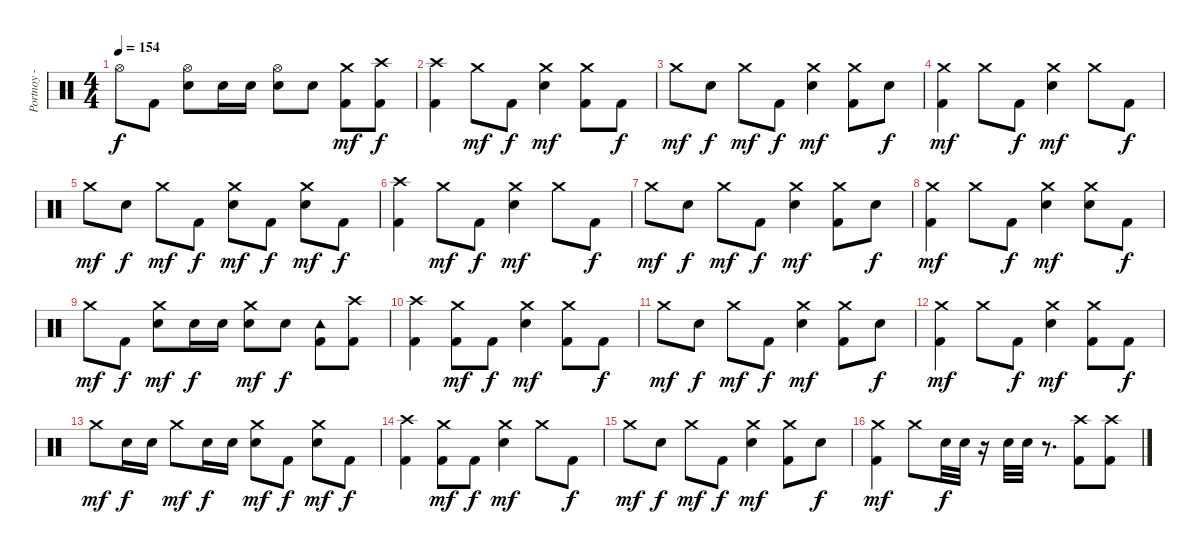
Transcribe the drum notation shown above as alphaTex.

\track ("Portnoy - Drums" "Portnoy - ") {instrument percussion}
\staff {score}
\articulation defaults
\ts (4 4)
\tempo 154
\clef neutral
\ks c "Hi-Hat (open)".8{dy f} "Kick (hit) 2".8
("Electric Snare (hit)" "Hi-Hat (open)").8 "Electric Snare (hit)".16 "Electric Snare (hit)".16 ("Electric Snare (hit)" "Hi-Hat (open)").8 "Electric Snare (hit)".8 ("Kick (hit) 2" "Crash medium (hit)").8{dy mf} ("Kick (hit) 2" "Crash high (hit)").8{dy f} |
("Kick (hit) 2" "Crash high (hit)").4 "Crash medium (hit)".8{dy mf} "Kick (hit) 2".8{dy f} ("Electric Snare (hit)" "Crash medium (hit)").4{dy mf} ("Kick (hit) 2" "Crash medium (hit)").8 "Kick (hit) 2".8{dy f} |
"Crash medium (hit)".8{dy mf} "Electric Snare (hit)".8{dy f} "Crash medium (hit)".8{dy mf} "Kick (hit) 2".8{dy f} ("Electric Snare (hit)" "Crash medium (hit)").4{dy mf} ("Kick (hit) 2" "Crash medium (hit)").8 "Electric Snare (hit)".8{dy f} |
("Kick (hit) 2" "Crash medium (hit)").4{dy mf} "Crash medium (hit)".8 "Kick (hit) 2".8{dy f} ("Electric Snare (hit)" "Crash medium (hit)").4{dy mf} "Crash medium (hit)".8 "Kick (hit) 2".8{dy f} |
"Crash medium (hit)".8{dy mf} "Electric Snare (hit)".8{dy f} "Crash medium (hit)".8{dy mf} "Kick (hit) 2".8{dy f} ("Electric Snare (hit)" "Crash medium (hit)").8{dy mf} "Kick (hit) 2".8{dy f} ("Electric Snare (hit)" "Crash medium (hit)").8{dy mf} "Kick (hit) 2".8{dy f} |
("Kick (hit) 2" "Crash high (hit)").4 "Crash medium (hit)".8{dy mf} "Kick (hit) 2".8{dy f} ("Electric Snare (hit)" "Crash medium (hit)").4{dy mf} "Crash medium (hit)".8 "Kick (hit) 2".8{dy f} |
"Crash medium (hit)".8{dy mf} "Electric Snare (hit)".8{dy f} "Crash medium (hit)".8{dy mf} "Kick (hit) 2".8{dy f} ("Electric Snare (hit)" "Crash medium (hit)").4{dy mf} ("Kick (hit) 2" "Crash medium (hit)").8 "Electric Snare (hit)".8{dy f} |
("Kick (hit) 2" "Crash medium (hit)").4{dy mf} "Crash medium (hit)".8 "Kick (hit) 2".8{dy f} ("Electric Snare (hit)" "Crash medium (hit)").4{dy mf} ("Electric Snare (hit)" "Crash medium (hit)").8 "Kick (hit) 2".8{dy f} |
"Crash medium (hit)".8{dy mf} "Kick (hit) 2".8{dy f} ("Electric Snare (hit)" "Crash medium (hit)").8{dy mf} "Electric Snare (hit)".16{dy f} "Electric Snare (hit)".16 ("Electric Snare (hit)" "Crash medium (hit)").8{dy mf} "Electric Snare (hit)".8{dy f} ("Kick (hit) 2" "Tambourine (hit)").8 ("Kick (hit) 2" "Crash high (hit)").8 |
("Crash high (hit)" "Kick (hit) 2").4 ("Kick (hit) 2" "Crash medium (hit)").8{dy mf} "Kick (hit) 2".8{dy f} ("Electric Snare (hit)" "Crash medium (hit)").4{dy mf} ("Kick (hit) 2" "Crash medium (hit)").8 "Kick (hit) 2".8{dy f} |
"Crash medium (hit)".8{dy mf} "Electric Snare (hit)".8{dy f} "Crash medium (hit)".8{dy mf} "Kick (hit) 2".8{dy f} ("Electric Snare (hit)" "Crash medium (hit)").4{dy mf} ("Kick (hit) 2" "Crash medium (hit)").8 "Electric Snare (hit)".8{dy f} |
("Kick (hit) 2" "Crash medium (hit)").4{dy mf} "Crash medium (hit)".8 "Kick (hit) 2".8{dy f} ("Electric Snare (hit)" "Crash medium (hit)").4{dy mf} ("Kick (hit) 2" "Crash medium (hit)").8 "Kick (hit) 2".8{dy f} |
"Crash medium (hit)".8{dy mf} "Electric Snare (hit)".16{dy f} "Electric Snare (hit)".16 "Crash medium (hit)".8{dy mf} "Electric Snare (hit)".16{dy f} "Electric Snare (hit)".16 ("Electric Snare (hit)" "Crash medium (hit)").8{dy mf} "Kick (hit) 2".8{dy f} ("Electric Snare (hit)" "Crash medium (hit)").8{dy mf} "Kick (hit) 2".8{dy f} |
("Crash high (hit)" "Kick (hit) 2").4 ("Kick (hit) 2" "Crash medium (hit)").8{dy mf} "Kick (hit) 2".8{dy f} ("Electric Snare (hit)" "Crash medium (hit)").4{dy mf} "Crash medium (hit)".8 "Kick (hit) 2".8{dy f} |
"Crash medium (hit)".8{dy mf} "Electric Snare (hit)".8{dy f} "Crash medium (hit)".8{dy mf} "Kick (hit) 2".8{dy f} ("Electric Snare (hit)" "Crash medium (hit)").4{dy mf} ("Kick (hit) 2" "Crash medium (hit)").8 "Electric Snare (hit)".8{dy f} |
("Kick (hit) 2" "Crash medium (hit)").4{dy mf} "Crash medium (hit)".8 "Electric Snare (hit)".32{dy f} "Electric Snare (hit)".32 r.16 "Electric Snare (hit)".32 "Electric Snare (hit)".32 r.8{d} ("Kick (hit) 2" "Crash high (hit)").8 ("Kick (hit) 2" "Crash high (hit)").8
